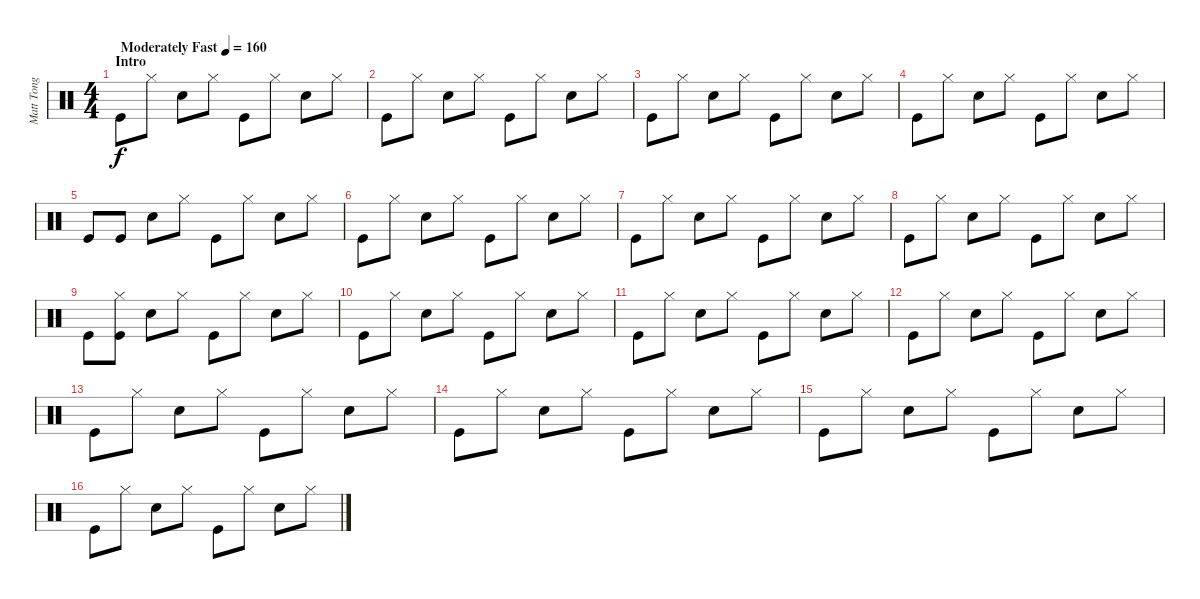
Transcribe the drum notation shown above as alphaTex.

\track ("Matt Tong" "Matt Tong") {instrument percussion}
\staff {score}
\articulation defaults
\ts (4 4)
\section ("" "Intro")
\tempo (160 "Moderately Fast")
\clef neutral
\ks c "Kick (hit)".8{dy f} "Hi-Hat (closed)".8 "Electric Snare (hit)".8 "Hi-Hat (closed)".8 "Kick (hit)".8 "Hi-Hat (closed)".8 "Electric Snare (hit)".8 "Hi-Hat (closed)".8
|
"Kick (hit)".8 "Hi-Hat (closed)".8 "Electric Snare (hit)".8 "Hi-Hat (closed)".8 "Kick (hit)".8 "Hi-Hat (closed)".8 "Electric Snare (hit)".8 "Hi-Hat (closed)".8 |
"Kick (hit)".8 "Hi-Hat (closed)".8 "Electric Snare (hit)".8 "Hi-Hat (closed)".8 "Kick (hit)".8 "Hi-Hat (closed)".8 "Electric Snare (hit)".8 "Hi-Hat (closed)".8 |
"Kick (hit)".8 "Hi-Hat (closed)".8 "Electric Snare (hit)".8 "Hi-Hat (closed)".8 "Kick (hit)".8 "Hi-Hat (closed)".8 "Electric Snare (hit)".8 "Hi-Hat (closed)".8 |
"Kick (hit)".8 "Kick (hit)".8 "Electric Snare (hit)".8 "Hi-Hat (closed)".8 "Kick (hit)".8 "Hi-Hat (closed)".8 "Electric Snare (hit)".8 "Hi-Hat (closed)".8 |
"Kick (hit)".8 "Hi-Hat (closed)".8 "Electric Snare (hit)".8 "Hi-Hat (closed)".8 "Kick (hit)".8 "Hi-Hat (closed)".8 "Electric Snare (hit)".8 "Hi-Hat (closed)".8 |
"Kick (hit)".8 "Hi-Hat (closed)".8 "Electric Snare (hit)".8 "Hi-Hat (closed)".8 "Kick (hit)".8 "Hi-Hat (closed)".8 "Electric Snare (hit)".8 "Hi-Hat (closed)".8 |
"Kick (hit)".8 "Hi-Hat (closed)".8 "Electric Snare (hit)".8 "Hi-Hat (closed)".8 "Kick (hit)".8 "Hi-Hat (closed)".8 "Electric Snare (hit)".8 "Hi-Hat (closed)".8 |
"Kick (hit)".8 ("Hi-Hat (closed)" "Kick (hit)").8 "Electric Snare (hit)".8 "Hi-Hat (closed)".8 "Kick (hit)".8 "Hi-Hat (closed)".8 "Electric Snare (hit)".8 "Hi-Hat (closed)".8 |
"Kick (hit)".8 "Hi-Hat (closed)".8 "Electric Snare (hit)".8 "Hi-Hat (closed)".8 "Kick (hit)".8 "Hi-Hat (closed)".8 "Electric Snare (hit)".8 "Hi-Hat (closed)".8 |
"Kick (hit)".8 "Hi-Hat (closed)".8 "Electric Snare (hit)".8 "Hi-Hat (closed)".8 "Kick (hit)".8 "Hi-Hat (closed)".8 "Electric Snare (hit)".8 "Hi-Hat (closed)".8 |
"Kick (hit)".8 "Hi-Hat (closed)".8 "Electric Snare (hit)".8 "Hi-Hat (closed)".8 "Kick (hit)".8 "Hi-Hat (closed)".8 "Electric Snare (hit)".8 "Hi-Hat (closed)".8 |
"Kick (hit)".8 "Hi-Hat (closed)".8 "Electric Snare (hit)".8 "Hi-Hat (closed)".8 "Kick (hit)".8 "Hi-Hat (closed)".8 "Electric Snare (hit)".8 "Hi-Hat (closed)".8 |
"Kick (hit)".8 "Hi-Hat (closed)".8 "Electric Snare (hit)".8 "Hi-Hat (closed)".8 "Kick (hit)".8 "Hi-Hat (closed)".8 "Electric Snare (hit)".8 "Hi-Hat (closed)".8 |
"Kick (hit)".8 "Hi-Hat (closed)".8 "Electric Snare (hit)".8 "Hi-Hat (closed)".8 "Kick (hit)".8 "Hi-Hat (closed)".8 "Electric Snare (hit)".8 "Hi-Hat (closed)".8 |
"Kick (hit)".8 "Hi-Hat (closed)".8 "Electric Snare (hit)".8 "Hi-Hat (closed)".8 "Kick (hit)".8 "Hi-Hat (closed)".8 "Electric Snare (hit)".8 "Hi-Hat (closed)".8
